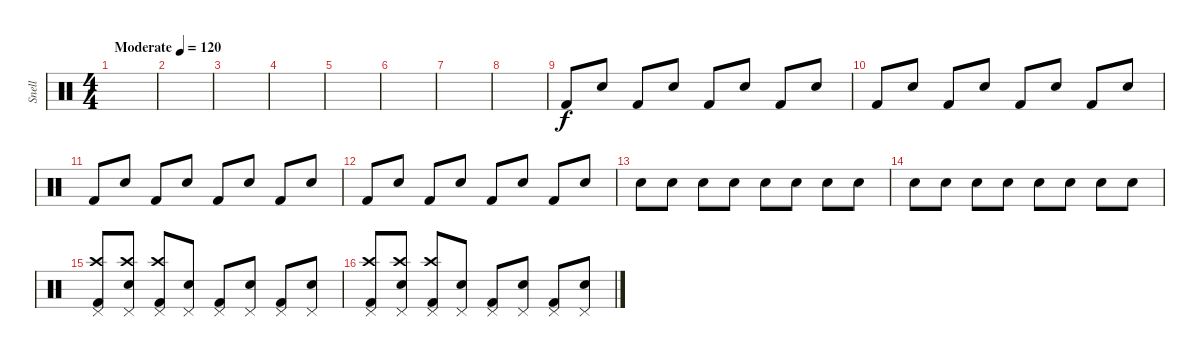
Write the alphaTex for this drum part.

\track ("Snell" "Snell") {instrument percussion}
\staff {score}
\articulation defaults
\ts (4 4)
\tempo (120 "Moderate")
\clef neutral
\ks c
|
|
|
|
|
|
|
|
"Kick (hit) 2".8 "Snare (hit) 2".8 "Kick (hit) 2".8 "Snare (hit) 2".8 "Kick (hit) 2".8 "Snare (hit) 2".8 "Kick (hit) 2".8 "Snare (hit) 2".8 |
"Kick (hit) 2".8 "Snare (hit) 2".8 "Kick (hit) 2".8 "Snare (hit) 2".8 "Kick (hit) 2".8 "Snare (hit) 2".8 "Kick (hit) 2".8 "Snare (hit) 2".8 |
"Kick (hit) 2".8 "Snare (hit) 2".8 "Kick (hit) 2".8 "Snare (hit) 2".8 "Kick (hit) 2".8 "Snare (hit) 2".8 "Kick (hit) 2".8 "Snare (hit) 2".8 |
"Kick (hit) 2".8 "Snare (hit) 2".8 "Kick (hit) 2".8 "Snare (hit) 2".8 "Kick (hit) 2".8 "Snare (hit) 2".8 "Kick (hit) 2".8 "Snare (hit) 2".8 |
"Snare (hit) 2".8 "Snare (hit) 2".8 "Snare (hit) 2".8 "Snare (hit) 2".8 "Snare (hit) 2".8 "Snare (hit) 2".8 "Snare (hit) 2".8 "Snare (hit) 2".8 |
"Snare (hit) 2".8 "Snare (hit) 2".8 "Snare (hit) 2".8 "Snare (hit) 2".8 "Snare (hit) 2".8 "Snare (hit) 2".8 "Snare (hit) 2".8 "Snare (hit) 2".8 |
("Crash high (hit)" "Pedal Hi-Hat (hit)" "Kick (hit) 2").8 ("Crash high (hit)" "Pedal Hi-Hat (hit)" "Snare (hit) 2").8 ("Crash high (hit)" "Pedal Hi-Hat (hit)" "Kick (hit) 2").8 ("Pedal Hi-Hat (hit)" "Snare (hit) 2").8 ("Pedal Hi-Hat (hit)" "Kick (hit) 2").8 ("Pedal Hi-Hat (hit)" "Snare (hit) 2").8 ("Pedal Hi-Hat (hit)" "Kick (hit) 2").8 ("Pedal Hi-Hat (hit)" "Snare (hit) 2").8 |
("Crash high (hit)" "Pedal Hi-Hat (hit)" "Kick (hit) 2").8 ("Crash high (hit)" "Pedal Hi-Hat (hit)" "Snare (hit) 2").8 ("Crash high (hit)" "Pedal Hi-Hat (hit)" "Kick (hit) 2").8 ("Pedal Hi-Hat (hit)" "Snare (hit) 2").8 ("Pedal Hi-Hat (hit)" "Kick (hit) 2").8 ("Pedal Hi-Hat (hit)" "Snare (hit) 2").8 ("Pedal Hi-Hat (hit)" "Kick (hit) 2").8 ("Pedal Hi-Hat (hit)" "Snare (hit) 2").8
